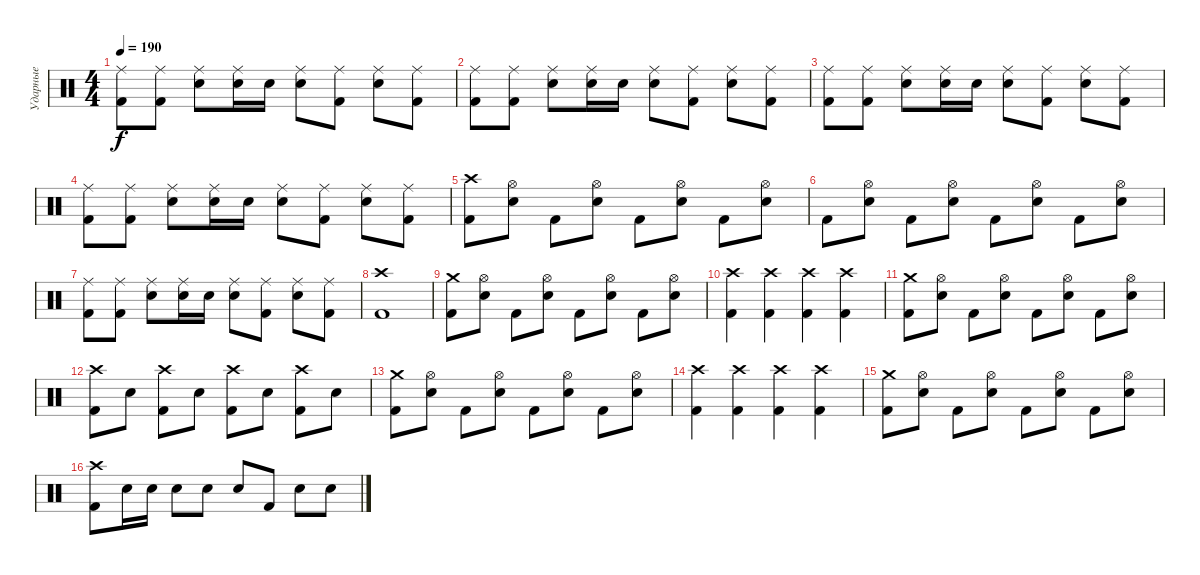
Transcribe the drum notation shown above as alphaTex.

\track ("Ударные" "Ударные") {instrument percussion}
\staff {score}
\articulation defaults
\ts (4 4)
\tempo 190
\clef neutral
\ks c
("Ride (middle)" "Kick (hit) 2").8{dy f} ("Ride (middle)" "Kick (hit) 2").8 ("Ride (middle)" "Electric Snare (hit)").8 ("Ride (middle)" "Electric Snare (hit)").16 "Electric Snare (hit)".16 ("Ride (middle)" "Electric Snare (hit)").8 ("Ride (middle)" "Kick (hit) 2").8 ("Ride (middle)" "Electric Snare (hit)").8 ("Ride (middle)" "Kick (hit) 2").8 |
("Ride (middle)" "Kick (hit) 2").8 ("Ride (middle)" "Kick (hit) 2").8 ("Ride (middle)" "Electric Snare (hit)").8 ("Ride (middle)" "Electric Snare (hit)").16 "Electric Snare (hit)".16 ("Ride (middle)" "Electric Snare (hit)").8 ("Ride (middle)" "Kick (hit) 2").8 ("Ride (middle)" "Electric Snare (hit)").8 ("Ride (middle)" "Kick (hit) 2").8 |
("Ride (middle)" "Kick (hit) 2").8 ("Ride (middle)" "Kick (hit) 2").8 ("Ride (middle)" "Electric Snare (hit)").8 ("Ride (middle)" "Electric Snare (hit)").16 "Electric Snare (hit)".16 ("Ride (middle)" "Electric Snare (hit)").8 ("Ride (middle)" "Kick (hit) 2").8 ("Ride (middle)" "Electric Snare (hit)").8 ("Ride (middle)" "Kick (hit) 2").8 |
("Ride (middle)" "Kick (hit) 2").8 ("Ride (middle)" "Kick (hit) 2").8 ("Ride (middle)" "Electric Snare (hit)").8 ("Ride (middle)" "Electric Snare (hit)").16 "Electric Snare (hit)".16 ("Ride (middle)" "Electric Snare (hit)").8 ("Ride (middle)" "Kick (hit) 2").8 ("Ride (middle)" "Electric Snare (hit)").8 ("Ride (middle)" "Kick (hit) 2").8 |
("Crash high (hit)" "Kick (hit) 2").8 ("Hi-Hat (open)" "Electric Snare (hit)").8 "Kick (hit) 2".8 ("Hi-Hat (open)" "Electric Snare (hit)").8 "Kick (hit) 2".8 ("Hi-Hat (open)" "Electric Snare (hit)").8 "Kick (hit) 2".8 ("Hi-Hat (open)" "Electric Snare (hit)").8 |
"Kick (hit) 2".8 ("Hi-Hat (open)" "Electric Snare (hit)").8 "Kick (hit) 2".8 ("Hi-Hat (open)" "Electric Snare (hit)").8 "Kick (hit) 2".8 ("Hi-Hat (open)" "Electric Snare (hit)").8 "Kick (hit) 2".8 ("Hi-Hat (open)" "Electric Snare (hit)").8 |
("Ride (middle)" "Kick (hit) 2").8 ("Ride (middle)" "Kick (hit) 2").8 ("Ride (middle)" "Electric Snare (hit)").8 ("Ride (middle)" "Electric Snare (hit)").16 "Electric Snare (hit)".16 ("Ride (middle)" "Electric Snare (hit)").8 ("Ride (middle)" "Kick (hit) 2").8 ("Ride (middle)" "Electric Snare (hit)").8 ("Ride (middle)" "Kick (hit) 2").8 |
("Crash high (hit)" "Kick (hit) 2").1 |
("Crash medium (hit)" "Kick (hit) 2").8 ("Hi-Hat (open)" "Electric Snare (hit)").8 "Kick (hit) 2".8 ("Hi-Hat (open)" "Electric Snare (hit)").8 "Kick (hit) 2".8 ("Hi-Hat (open)" "Electric Snare (hit)").8 "Kick (hit) 2".8 ("Hi-Hat (open)" "Electric Snare (hit)").8 |
("Crash high (hit)" "Kick (hit) 2").4 ("Crash high (hit)" "Kick (hit) 2").4 ("Crash high (hit)" "Kick (hit) 2").4 ("Crash high (hit)" "Kick (hit) 2").4 |
("Crash medium (hit)" "Kick (hit) 2").8 ("Hi-Hat (open)" "Electric Snare (hit)").8 "Kick (hit) 2".8 ("Hi-Hat (open)" "Electric Snare (hit)").8 "Kick (hit) 2".8 ("Hi-Hat (open)" "Electric Snare (hit)").8 "Kick (hit) 2".8 ("Hi-Hat (open)" "Electric Snare (hit)").8 |
("Crash high (hit)" "Kick (hit) 2").8 "Electric Snare (hit)".8 ("Crash high (hit)" "Kick (hit) 2").8 "Electric Snare (hit)".8 ("Crash high (hit)" "Kick (hit) 2").8 "Electric Snare (hit)".8 ("Crash high (hit)" "Kick (hit) 2").8 "Electric Snare (hit)".8 |
("Crash medium (hit)" "Kick (hit) 2").8 ("Hi-Hat (open)" "Electric Snare (hit)").8 "Kick (hit) 2".8 ("Hi-Hat (open)" "Electric Snare (hit)").8 "Kick (hit) 2".8 ("Hi-Hat (open)" "Electric Snare (hit)").8 "Kick (hit) 2".8 ("Hi-Hat (open)" "Electric Snare (hit)").8 |
("Crash high (hit)" "Kick (hit) 2").4 ("Crash high (hit)" "Kick (hit) 2").4 ("Crash high (hit)" "Kick (hit) 2").4 ("Crash high (hit)" "Kick (hit) 2").4 |
("Crash medium (hit)" "Kick (hit) 2").8 ("Hi-Hat (open)" "Electric Snare (hit)").8 "Kick (hit) 2".8 ("Hi-Hat (open)" "Electric Snare (hit)").8 "Kick (hit) 2".8 ("Hi-Hat (open)" "Electric Snare (hit)").8 "Kick (hit) 2".8 ("Hi-Hat (open)" "Electric Snare (hit)").8 |
("Crash high (hit)" "Kick (hit) 2").8 "Electric Snare (hit)".16 "Electric Snare (hit)".16 "Electric Snare (hit)".8 "Electric Snare (hit)".8 "Electric Snare (hit)".8 "Kick (hit) 2".8 "Electric Snare (hit)".8 "Electric Snare (hit)".8
